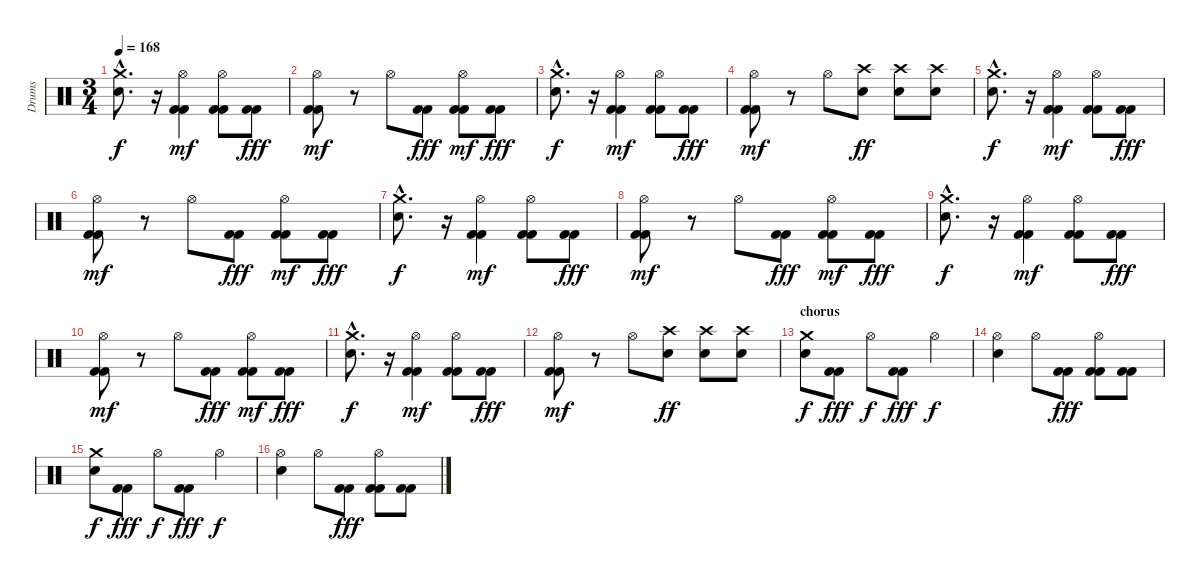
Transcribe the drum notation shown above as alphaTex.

\track ("Drums" "Drums") {instrument percussion}
\staff {score}
\articulation defaults
\ts (3 4)
\tempo 168
\clef neutral
\ks c
("Crash medium (hit)"{hac} "Electric Snare (hit)"{hac}).8{d dy f} r.16 ("Kick (hit) 2" "Kick (hit) 2" "Hi-Hat (open)").4{dy mf} ("Kick (hit) 2" "Kick (hit) 2" "Hi-Hat (open)").8 ("Kick (hit) 2" "Kick (hit) 2").8{dy fff} |
("Kick (hit) 2" "Kick (hit) 2" "Hi-Hat (open)").8{dy mf} r.8 "Hi-Hat (open)".8 ("Kick (hit) 2" "Kick (hit) 2").8{dy fff} ("Kick (hit) 2" "Kick (hit) 2" "Hi-Hat (open)").8{dy mf} ("Kick (hit) 2" "Kick (hit) 2").8{dy fff} |
("Crash medium (hit)"{hac} "Electric Snare (hit)"{hac}).8{d dy f} r.16 ("Kick (hit) 2" "Kick (hit) 2" "Hi-Hat (open)").4{dy mf} ("Kick (hit) 2" "Kick (hit) 2" "Hi-Hat (open)").8 ("Kick (hit) 2" "Kick (hit) 2").8{dy fff} |
("Kick (hit) 2" "Kick (hit) 2" "Hi-Hat (open)").8{dy mf} r.8 "Hi-Hat (open)".8 ("Crash high (hit)" "Electric Snare (hit)").8{dy ff} ("Crash high (hit)" "Electric Snare (hit)").8 ("Crash high (hit)" "Electric Snare (hit)").8 |
("Crash medium (hit)"{hac} "Electric Snare (hit)"{hac}).8{d dy f} r.16 ("Kick (hit) 2" "Kick (hit) 2" "Hi-Hat (open)").4{dy mf} ("Kick (hit) 2" "Kick (hit) 2" "Hi-Hat (open)").8 ("Kick (hit) 2" "Kick (hit) 2").8{dy fff} |
("Kick (hit) 2" "Kick (hit) 2" "Hi-Hat (open)").8{dy mf} r.8 "Hi-Hat (open)".8 ("Kick (hit) 2" "Kick (hit) 2").8{dy fff} ("Kick (hit) 2" "Kick (hit) 2" "Hi-Hat (open)").8{dy mf} ("Kick (hit) 2" "Kick (hit) 2").8{dy fff} |
("Crash medium (hit)"{hac} "Electric Snare (hit)"{hac}).8{d dy f} r.16 ("Kick (hit) 2" "Kick (hit) 2" "Hi-Hat (open)").4{dy mf} ("Kick (hit) 2" "Kick (hit) 2" "Hi-Hat (open)").8 ("Kick (hit) 2" "Kick (hit) 2").8{dy fff} |
("Kick (hit) 2" "Kick (hit) 2" "Hi-Hat (open)").8{dy mf} r.8 "Hi-Hat (open)".8 ("Kick (hit) 2" "Kick (hit) 2").8{dy fff} ("Kick (hit) 2" "Kick (hit) 2" "Hi-Hat (open)").8{dy mf} ("Kick (hit) 2" "Kick (hit) 2").8{dy fff} |
("Crash medium (hit)"{hac} "Electric Snare (hit)"{hac}).8{d dy f} r.16 ("Kick (hit) 2" "Kick (hit) 2" "Hi-Hat (open)").4{dy mf} ("Kick (hit) 2" "Kick (hit) 2" "Hi-Hat (open)").8 ("Kick (hit) 2" "Kick (hit) 2").8{dy fff} |
("Kick (hit) 2" "Kick (hit) 2" "Hi-Hat (open)").8{dy mf} r.8 "Hi-Hat (open)".8 ("Kick (hit) 2" "Kick (hit) 2").8{dy fff} ("Kick (hit) 2" "Kick (hit) 2" "Hi-Hat (open)").8{dy mf} ("Kick (hit) 2" "Kick (hit) 2").8{dy fff} |
("Crash medium (hit)"{hac} "Electric Snare (hit)"{hac}).8{d dy f} r.16 ("Kick (hit) 2" "Kick (hit) 2" "Hi-Hat (open)").4{dy mf} ("Kick (hit) 2" "Kick (hit) 2" "Hi-Hat (open)").8 ("Kick (hit) 2" "Kick (hit) 2").8{dy fff} |
("Kick (hit) 2" "Kick (hit) 2" "Hi-Hat (open)").8{dy mf} r.8 "Hi-Hat (open)".8 ("Crash high (hit)" "Electric Snare (hit)").8{dy ff} ("Crash high (hit)" "Electric Snare (hit)").8 ("Crash high (hit)" "Electric Snare (hit)").8 |
\section ("" "chorus")
("Crash medium (hit)" "Electric Snare (hit)").8{dy f} ("Kick (hit) 2" "Kick (hit) 2").8{dy fff} "Hi-Hat (open)".8{dy f} ("Kick (hit) 2" "Kick (hit) 2").8{dy fff} "Hi-Hat (open)".4{dy f} |
("Electric Snare (hit)" "Hi-Hat (open)").4 "Hi-Hat (open)".8 ("Kick (hit) 2" "Kick (hit) 2").8{dy fff} ("Hi-Hat (open)" "Kick (hit) 2" "Kick (hit) 2").8 ("Kick (hit) 2" "Kick (hit) 2").8 |
("Crash medium (hit)" "Electric Snare (hit)").8{dy f} ("Kick (hit) 2" "Kick (hit) 2").8{dy fff} "Hi-Hat (open)".8{dy f} ("Kick (hit) 2" "Kick (hit) 2").8{dy fff} "Hi-Hat (open)".4{dy f} |
("Electric Snare (hit)" "Hi-Hat (open)").4 "Hi-Hat (open)".8 ("Kick (hit) 2" "Kick (hit) 2").8{dy fff} ("Hi-Hat (open)" "Kick (hit) 2" "Kick (hit) 2").8 ("Kick (hit) 2" "Kick (hit) 2").8
